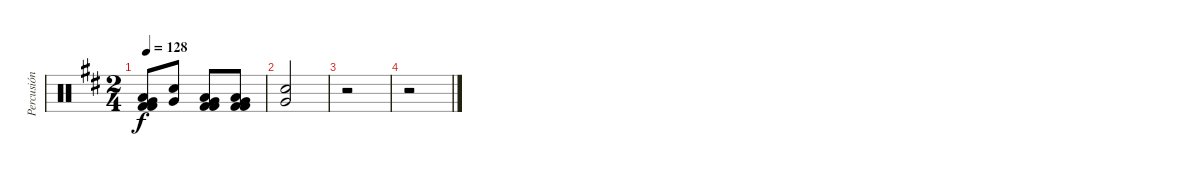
\track ("Percusión" "Percusión") {instrument percussion}
\staff {score}
\articulation defaults
\ts (2 4)
\tempo 128
\clef neutral
\ks d
("Kick (hit) 2" "Low Floor Tom (hit)" "Kick (hit) 2" "Very Low Tom (hit)").8{dy f} ("Electric Snare (hit)" "Very Low Tom (hit)").8 ("Kick (hit) 2" "Low Floor Tom (hit)" "Kick (hit) 2" "Very Low Tom (hit)").8 ("Kick (hit) 2" "Low Floor Tom (hit)" "Kick (hit) 2" "Very Low Tom (hit)").8 |
("Electric Snare (hit)" "Very Low Tom (hit)").2 |
r.2 |
r.2
